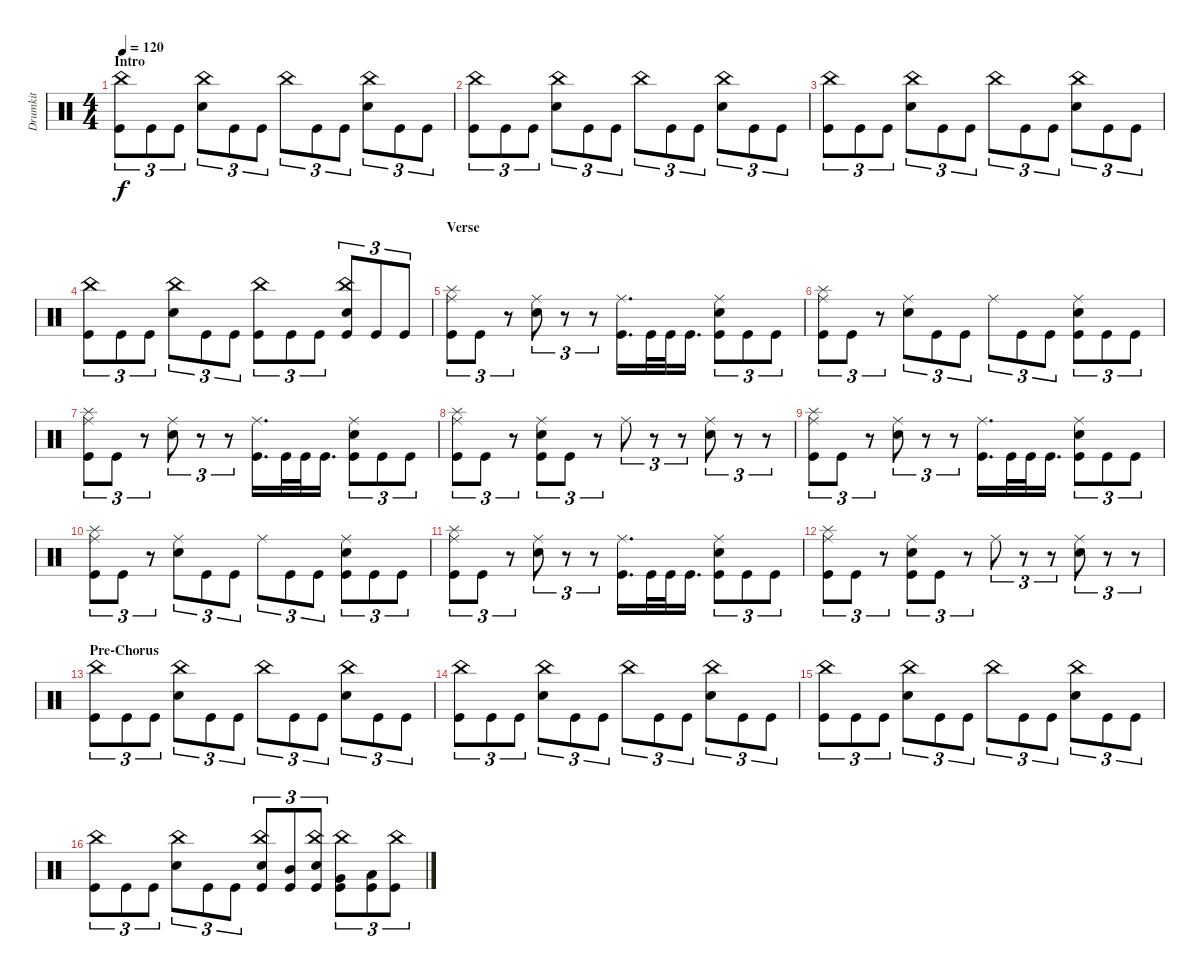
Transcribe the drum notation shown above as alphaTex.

\track ("Drumkit" "Drumkit") {instrument percussion}
\staff {score}
\articulation defaults
\ts (4 4)
\section ("" "Intro")
\tempo 120
\clef neutral
\ks c
("Kick (hit)" "China (hit)").8{tu (3 2) dy f} "Kick (hit)".8{tu (3 2)} "Kick (hit)".8{tu (3 2)} ("Snare (hit) 2" "China (hit)").8{tu (3 2)} "Kick (hit)".8{tu (3 2)} "Kick (hit)".8{tu (3 2)} "China (hit)".8{tu (3 2)} "Kick (hit)".8{tu (3 2)} "Kick (hit)".8{tu (3 2)} ("Snare (hit) 2" "China (hit)").8{tu (3 2)} "Kick (hit)".8{tu (3 2)} "Kick (hit)".8{tu (3 2)} |
("Kick (hit)" "China (hit)").8{tu (3 2)} "Kick (hit)".8{tu (3 2)} "Kick (hit)".8{tu (3 2)} ("Snare (hit) 2" "China (hit)").8{tu (3 2)} "Kick (hit)".8{tu (3 2)} "Kick (hit)".8{tu (3 2)} "China (hit)".8{tu (3 2)} "Kick (hit)".8{tu (3 2)} "Kick (hit)".8{tu (3 2)} ("Snare (hit) 2" "China (hit)").8{tu (3 2)} "Kick (hit)".8{tu (3 2)} "Kick (hit)".8{tu (3 2)} |
("Kick (hit)" "China (hit)").8{tu (3 2)} "Kick (hit)".8{tu (3 2)} "Kick (hit)".8{tu (3 2)} ("Snare (hit) 2" "China (hit)").8{tu (3 2)} "Kick (hit)".8{tu (3 2)} "Kick (hit)".8{tu (3 2)} "China (hit)".8{tu (3 2)} "Kick (hit)".8{tu (3 2)} "Kick (hit)".8{tu (3 2)} ("Snare (hit) 2" "China (hit)").8{tu (3 2)} "Kick (hit)".8{tu (3 2)} "Kick (hit)".8{tu (3 2)} |
("Kick (hit)" "China (hit)").8{tu (3 2)} "Kick (hit)".8{tu (3 2)} "Kick (hit)".8{tu (3 2)} ("Snare (hit) 2" "China (hit)").8{tu (3 2)} "Kick (hit)".8{tu (3 2)} "Kick (hit)".8{tu (3 2)} ("China (hit)" "Kick (hit)").8{tu (3 2)} "Kick (hit)".8{tu (3 2)} "Kick (hit)".8{tu (3 2)} ("Snare (hit) 2" "China (hit)" "Kick (hit)").8{tu (3 2)} "Kick (hit)".8{tu (3 2)} "Kick (hit)".8{tu (3 2)} |
\section ("" "Verse")
("Splash (hit)" "Kick (hit)" "Ride (middle)").8{tu (3 2)} "Kick (hit)".8{tu (3 2)} r.8{tu (3 2)} ("Ride (middle)" "Snare (hit) 2").8{tu (3 2)} r.8{tu (3 2)} r.8{tu (3 2)} ("Kick (hit)" "Ride (middle)").16{d} "Kick (hit)".32 "Kick (hit)".32 "Kick (hit)".16{d} ("Kick (hit)" "Ride (middle)" "Snare (hit) 2").8{tu (3 2)} "Kick (hit)".8{tu (3 2)} "Kick (hit)".8{tu (3 2)} |
("Splash (hit)" "Kick (hit)" "Ride (middle)").8{tu (3 2)} "Kick (hit)".8{tu (3 2)} r.8{tu (3 2)} ("Ride (middle)" "Snare (hit) 2").8{tu (3 2)} "Kick (hit)".8{tu (3 2)} "Kick (hit)".8{tu (3 2)} "Ride (middle)".8{tu (3 2)} "Kick (hit)".8{tu (3 2)} "Kick (hit)".8{tu (3 2)} ("Kick (hit)" "Ride (middle)" "Snare (hit) 2").8{tu (3 2)} "Kick (hit)".8{tu (3 2)} "Kick (hit)".8{tu (3 2)} |
("Splash (hit)" "Kick (hit)" "Ride (middle)").8{tu (3 2)} "Kick (hit)".8{tu (3 2)} r.8{tu (3 2)} ("Ride (middle)" "Snare (hit) 2").8{tu (3 2)} r.8{tu (3 2)} r.8{tu (3 2)} ("Kick (hit)" "Ride (middle)").16{d} "Kick (hit)".32 "Kick (hit)".32 "Kick (hit)".16{d} ("Kick (hit)" "Ride (middle)" "Snare (hit) 2").8{tu (3 2)} "Kick (hit)".8{tu (3 2)} "Kick (hit)".8{tu (3 2)} |
("Splash (hit)" "Kick (hit)" "Ride (middle)").8{tu (3 2)} "Kick (hit)".8{tu (3 2)} r.8{tu (3 2)} ("Ride (middle)" "Snare (hit) 2" "Kick (hit)").8{tu (3 2)} "Kick (hit)".8{tu (3 2)} r.8{tu (3 2)} "Ride (middle)".8{tu (3 2)} r.8{tu (3 2)} r.8{tu (3 2)} ("Ride (middle)" "Snare (hit) 2").8{tu (3 2)} r.8{tu (3 2)} r.8{tu (3 2)} |
("Splash (hit)" "Kick (hit)" "Ride (middle)").8{tu (3 2)} "Kick (hit)".8{tu (3 2)} r.8{tu (3 2)} ("Ride (middle)" "Snare (hit) 2").8{tu (3 2)} r.8{tu (3 2)} r.8{tu (3 2)} ("Kick (hit)" "Ride (middle)").16{d} "Kick (hit)".32 "Kick (hit)".32 "Kick (hit)".16{d} ("Kick (hit)" "Ride (middle)" "Snare (hit) 2").8{tu (3 2)} "Kick (hit)".8{tu (3 2)} "Kick (hit)".8{tu (3 2)} |
("Splash (hit)" "Kick (hit)" "Ride (middle)").8{tu (3 2)} "Kick (hit)".8{tu (3 2)} r.8{tu (3 2)} ("Ride (middle)" "Snare (hit) 2").8{tu (3 2)} "Kick (hit)".8{tu (3 2)} "Kick (hit)".8{tu (3 2)} "Ride (middle)".8{tu (3 2)} "Kick (hit)".8{tu (3 2)} "Kick (hit)".8{tu (3 2)} ("Kick (hit)" "Ride (middle)" "Snare (hit) 2").8{tu (3 2)} "Kick (hit)".8{tu (3 2)} "Kick (hit)".8{tu (3 2)} |
("Splash (hit)" "Kick (hit)" "Ride (middle)").8{tu (3 2)} "Kick (hit)".8{tu (3 2)} r.8{tu (3 2)} ("Ride (middle)" "Snare (hit) 2").8{tu (3 2)} r.8{tu (3 2)} r.8{tu (3 2)} ("Kick (hit)" "Ride (middle)").16{d} "Kick (hit)".32 "Kick (hit)".32 "Kick (hit)".16{d} ("Kick (hit)" "Ride (middle)" "Snare (hit) 2").8{tu (3 2)} "Kick (hit)".8{tu (3 2)} "Kick (hit)".8{tu (3 2)} |
("Splash (hit)" "Kick (hit)" "Ride (middle)").8{tu (3 2)} "Kick (hit)".8{tu (3 2)} r.8{tu (3 2)} ("Ride (middle)" "Snare (hit) 2" "Kick (hit)").8{tu (3 2)} "Kick (hit)".8{tu (3 2)} r.8{tu (3 2)} "Ride (middle)".8{tu (3 2)} r.8{tu (3 2)} r.8{tu (3 2)} ("Ride (middle)" "Snare (hit) 2").8{tu (3 2)} r.8{tu (3 2)} r.8{tu (3 2)} |
\section ("" "Pre-Chorus")
("Kick (hit)" "China (hit)").8{tu (3 2)} "Kick (hit)".8{tu (3 2)} "Kick (hit)".8{tu (3 2)} ("Snare (hit) 2" "China (hit)").8{tu (3 2)} "Kick (hit)".8{tu (3 2)} "Kick (hit)".8{tu (3 2)} "China (hit)".8{tu (3 2)} "Kick (hit)".8{tu (3 2)} "Kick (hit)".8{tu (3 2)} ("Snare (hit) 2" "China (hit)").8{tu (3 2)} "Kick (hit)".8{tu (3 2)} "Kick (hit)".8{tu (3 2)} |
("Kick (hit)" "China (hit)").8{tu (3 2)} "Kick (hit)".8{tu (3 2)} "Kick (hit)".8{tu (3 2)} ("Snare (hit) 2" "China (hit)").8{tu (3 2)} "Kick (hit)".8{tu (3 2)} "Kick (hit)".8{tu (3 2)} "China (hit)".8{tu (3 2)} "Kick (hit)".8{tu (3 2)} "Kick (hit)".8{tu (3 2)} ("Snare (hit) 2" "China (hit)").8{tu (3 2)} "Kick (hit)".8{tu (3 2)} "Kick (hit)".8{tu (3 2)} |
("Kick (hit)" "China (hit)").8{tu (3 2)} "Kick (hit)".8{tu (3 2)} "Kick (hit)".8{tu (3 2)} ("Snare (hit) 2" "China (hit)").8{tu (3 2)} "Kick (hit)".8{tu (3 2)} "Kick (hit)".8{tu (3 2)} "China (hit)".8{tu (3 2)} "Kick (hit)".8{tu (3 2)} "Kick (hit)".8{tu (3 2)} ("Snare (hit) 2" "China (hit)").8{tu (3 2)} "Kick (hit)".8{tu (3 2)} "Kick (hit)".8{tu (3 2)} |
("Kick (hit)" "China (hit)").8{tu (3 2)} "Kick (hit)".8{tu (3 2)} "Kick (hit)".8{tu (3 2)} ("Snare (hit) 2" "China (hit)").8{tu (3 2)} "Kick (hit)".8{tu (3 2)} "Kick (hit)".8{tu (3 2)} ("Snare (hit) 2" "China (hit)" "Kick (hit)").8{tu (3 2)} ("Mid Tom (hit)" "Kick (hit)").8{tu (3 2)} ("Snare (hit) 2" "China (hit)" "Kick (hit)").8{tu (3 2)} ("Very Low Tom (hit)" "China (hit)" "Kick (hit)").8{tu (3 2)} ("Low Floor Tom (hit)" "Kick (hit)").8{tu (3 2)} ("Kick (hit)" "China (hit)").8{tu (3 2)}
